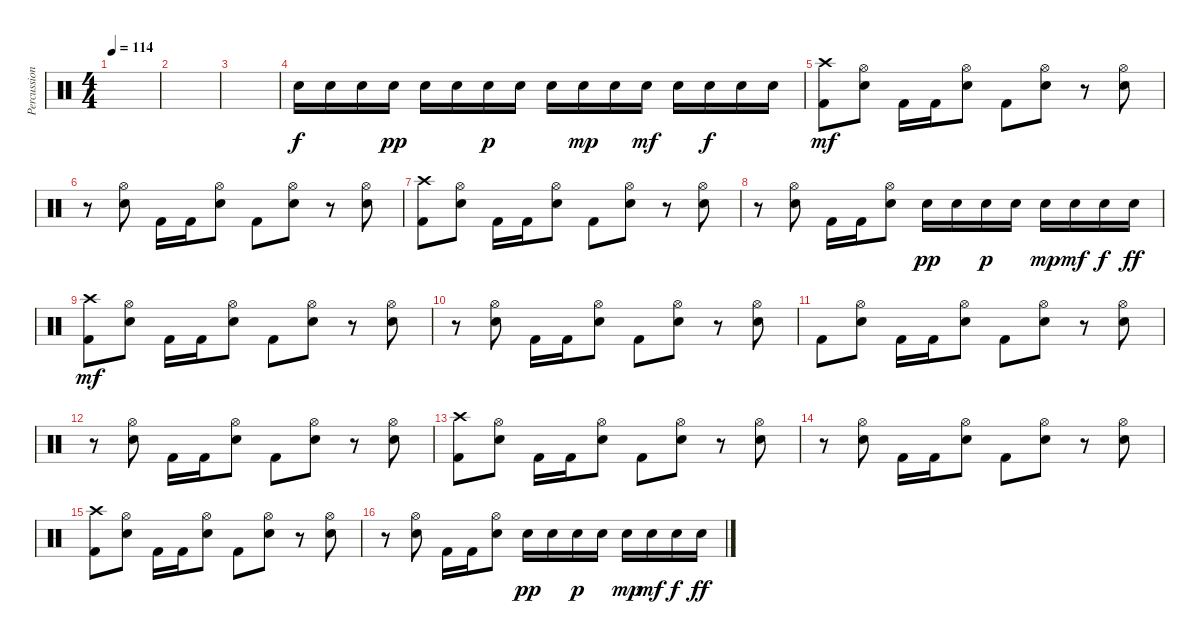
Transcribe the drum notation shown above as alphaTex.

\track ("Percussion" "Percussion") {instrument percussion}
\staff {score}
\articulation defaults
\ts (4 4)
\tempo 114
\clef neutral
\ks c
|
|
|
"Snare (hit) 2".16 "Snare (hit) 2".16 "Snare (hit) 2".16 "Snare (hit) 2".16{dy pp} "Snare (hit) 2".16 "Snare (hit) 2".16 "Snare (hit) 2".16{dy p} "Snare (hit) 2".16 "Snare (hit) 2".16 "Snare (hit) 2".16{dy mp} "Snare (hit) 2".16 "Snare (hit) 2".16{dy mf} "Snare (hit) 2".16 "Snare (hit) 2".16{dy f} "Snare (hit) 2".16 "Snare (hit) 2".16 |
("Crash high (hit)" "Kick (hit) 2").8{dy mf} ("Hi-Hat (open)" "Snare (hit) 2").8 "Kick (hit) 2".16 "Kick (hit) 2".16 ("Hi-Hat (open)" "Snare (hit) 2").8 "Kick (hit) 2".8 ("Hi-Hat (open)" "Snare (hit) 2").8 r.8 ("Hi-Hat (open)" "Snare (hit) 2").8 |
r.8 ("Hi-Hat (open)" "Snare (hit) 2").8 "Kick (hit) 2".16 "Kick (hit) 2".16 ("Hi-Hat (open)" "Snare (hit) 2").8 "Kick (hit) 2".8 ("Hi-Hat (open)" "Snare (hit) 2").8 r.8 ("Hi-Hat (open)" "Snare (hit) 2").8 |
("Crash high (hit)" "Kick (hit) 2").8 ("Hi-Hat (open)" "Snare (hit) 2").8 "Kick (hit) 2".16 "Kick (hit) 2".16 ("Hi-Hat (open)" "Snare (hit) 2").8 "Kick (hit) 2".8 ("Hi-Hat (open)" "Snare (hit) 2").8 r.8 ("Hi-Hat (open)" "Snare (hit) 2").8 |
r.8 ("Hi-Hat (open)" "Snare (hit) 2").8 "Kick (hit) 2".16 "Kick (hit) 2".16 ("Hi-Hat (open)" "Snare (hit) 2").8 "Snare (hit) 2".16{dy pp} "Snare (hit) 2".16 "Snare (hit) 2".16{dy p} "Snare (hit) 2".16 "Snare (hit) 2".16{dy mp} "Snare (hit) 2".16{dy mf} "Snare (hit) 2".16{dy f} "Snare (hit) 2".16{dy ff} |
("Crash high (hit)" "Kick (hit) 2").8{dy mf} ("Hi-Hat (open)" "Snare (hit) 2").8 "Kick (hit) 2".16 "Kick (hit) 2".16 ("Hi-Hat (open)" "Snare (hit) 2").8 "Kick (hit) 2".8 ("Hi-Hat (open)" "Snare (hit) 2").8 r.8 ("Hi-Hat (open)" "Snare (hit) 2").8 |
r.8 ("Hi-Hat (open)" "Snare (hit) 2").8 "Kick (hit) 2".16 "Kick (hit) 2".16 ("Hi-Hat (open)" "Snare (hit) 2").8 "Kick (hit) 2".8 ("Hi-Hat (open)" "Snare (hit) 2").8 r.8 ("Hi-Hat (open)" "Snare (hit) 2").8 |
"Kick (hit) 2".8 ("Hi-Hat (open)" "Snare (hit) 2").8 "Kick (hit) 2".16 "Kick (hit) 2".16 ("Hi-Hat (open)" "Snare (hit) 2").8 "Kick (hit) 2".8 ("Hi-Hat (open)" "Snare (hit) 2").8 r.8 ("Hi-Hat (open)" "Snare (hit) 2").8 |
r.8 ("Hi-Hat (open)" "Snare (hit) 2").8 "Kick (hit) 2".16 "Kick (hit) 2".16 ("Hi-Hat (open)" "Snare (hit) 2").8 "Kick (hit) 2".8 ("Hi-Hat (open)" "Snare (hit) 2").8 r.8 ("Hi-Hat (open)" "Snare (hit) 2").8 |
("Crash high (hit)" "Kick (hit) 2").8 ("Hi-Hat (open)" "Snare (hit) 2").8 "Kick (hit) 2".16 "Kick (hit) 2".16 ("Hi-Hat (open)" "Snare (hit) 2").8 "Kick (hit) 2".8 ("Hi-Hat (open)" "Snare (hit) 2").8 r.8 ("Hi-Hat (open)" "Snare (hit) 2").8 |
r.8 ("Hi-Hat (open)" "Snare (hit) 2").8 "Kick (hit) 2".16 "Kick (hit) 2".16 ("Hi-Hat (open)" "Snare (hit) 2").8 "Kick (hit) 2".8 ("Hi-Hat (open)" "Snare (hit) 2").8 r.8 ("Hi-Hat (open)" "Snare (hit) 2").8 |
("Crash high (hit)" "Kick (hit) 2").8 ("Hi-Hat (open)" "Snare (hit) 2").8 "Kick (hit) 2".16 "Kick (hit) 2".16 ("Hi-Hat (open)" "Snare (hit) 2").8 "Kick (hit) 2".8 ("Hi-Hat (open)" "Snare (hit) 2").8 r.8 ("Hi-Hat (open)" "Snare (hit) 2").8 |
r.8 ("Hi-Hat (open)" "Snare (hit) 2").8 "Kick (hit) 2".16 "Kick (hit) 2".16 ("Hi-Hat (open)" "Snare (hit) 2").8 "Snare (hit) 2".16{dy pp} "Snare (hit) 2".16 "Snare (hit) 2".16{dy p} "Snare (hit) 2".16 "Snare (hit) 2".16{dy mp} "Snare (hit) 2".16{dy mf} "Snare (hit) 2".16{dy f} "Snare (hit) 2".16{dy ff}
